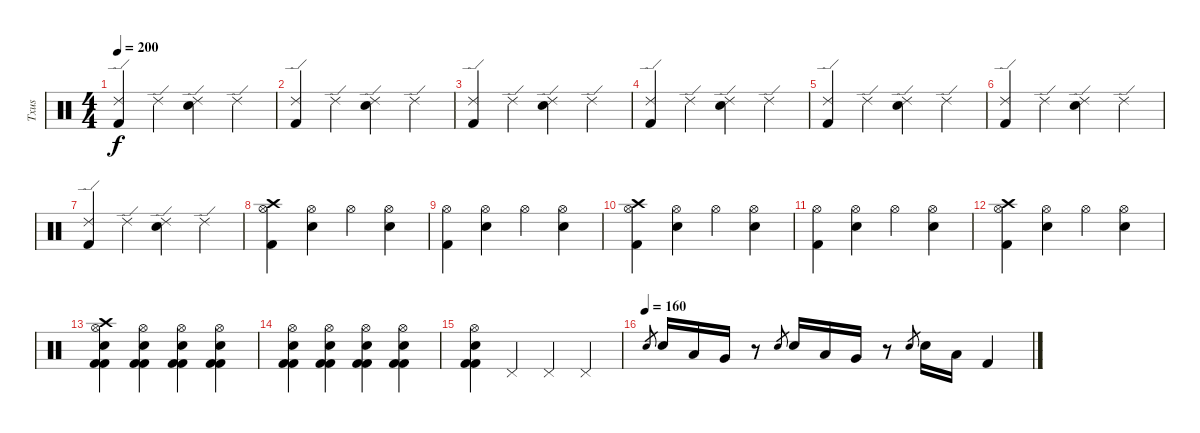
\track ("Txus" "Txus") {instrument percussion}
\staff
\articulation defaults
\ts (4 4)
\tempo 200
\clef neutral
\ks c
("Ride (edge) 2" "Kick (hit) 2").4{dy f} "Ride (edge) 2".4 ("Ride (edge) 2" "Electric Snare (hit)").4 "Ride (edge) 2".4 |
("Ride (edge) 2" "Kick (hit) 2").4 "Ride (edge) 2".4 ("Ride (edge) 2" "Electric Snare (hit)").4 "Ride (edge) 2".4 |
("Ride (edge) 2" "Kick (hit) 2").4 "Ride (edge) 2".4 ("Ride (edge) 2" "Electric Snare (hit)").4 "Ride (edge) 2".4 |
("Ride (edge) 2" "Kick (hit) 2").4 "Ride (edge) 2".4 ("Ride (edge) 2" "Electric Snare (hit)").4 "Ride (edge) 2".4 |
("Ride (edge) 2" "Kick (hit) 2").4 "Ride (edge) 2".4 ("Ride (edge) 2" "Electric Snare (hit)").4 "Ride (edge) 2".4 |
("Ride (edge) 2" "Kick (hit) 2").4 "Ride (edge) 2".4 ("Ride (edge) 2" "Electric Snare (hit)").4 "Ride (edge) 2".4 |
("Ride (edge) 2" "Kick (hit) 2").4 "Ride (edge) 2".4 ("Ride (edge) 2" "Electric Snare (hit)").4 "Ride (edge) 2".4 |
("Kick (hit) 2" "Crash high (hit)" "Hi-Hat (open)").4 ("Electric Snare (hit)" "Hi-Hat (open)").4 "Hi-Hat (open)".4 ("Electric Snare (hit)" "Hi-Hat (open)").4 |
("Kick (hit) 2" "Hi-Hat (open)").4 ("Electric Snare (hit)" "Hi-Hat (open)").4 "Hi-Hat (open)".4 ("Electric Snare (hit)" "Hi-Hat (open)").4 |
("Kick (hit) 2" "Crash high (hit)" "Hi-Hat (open)").4 ("Electric Snare (hit)" "Hi-Hat (open)").4 "Hi-Hat (open)".4 ("Electric Snare (hit)" "Hi-Hat (open)").4 |
("Kick (hit) 2" "Hi-Hat (open)").4 ("Electric Snare (hit)" "Hi-Hat (open)").4 "Hi-Hat (open)".4 ("Electric Snare (hit)" "Hi-Hat (open)").4 |
("Kick (hit) 2" "Crash high (hit)" "Hi-Hat (open)").4 ("Electric Snare (hit)" "Hi-Hat (open)").4 "Hi-Hat (open)".4 ("Electric Snare (hit)" "Hi-Hat (open)").4 |
("Electric Snare (hit)" "Kick (hit) 2" "Kick (hit) 2" "Hi-Hat (open)" "Crash high (hit)").4 ("Electric Snare (hit)" "Kick (hit) 2" "Kick (hit) 2" "Hi-Hat (open)").4 ("Electric Snare (hit)" "Kick (hit) 2" "Kick (hit) 2" "Hi-Hat (open)").4 ("Electric Snare (hit)" "Kick (hit) 2" "Kick (hit) 2" "Hi-Hat (open)").4 |
("Electric Snare (hit)" "Kick (hit) 2" "Kick (hit) 2" "Hi-Hat (open)").4 ("Electric Snare (hit)" "Kick (hit) 2" "Kick (hit) 2" "Hi-Hat (open)").4 ("Electric Snare (hit)" "Kick (hit) 2" "Kick (hit) 2" "Hi-Hat (open)").4 ("Electric Snare (hit)" "Kick (hit) 2" "Kick (hit) 2" "Hi-Hat (open)").4 |
("Electric Snare (hit)" "Kick (hit) 2" "Kick (hit) 2" "Hi-Hat (open)").4 "Pedal Hi-Hat (hit)".4 "Pedal Hi-Hat (hit)".4 "Pedal Hi-Hat (hit)".4 |
\tempo (160)
"Electric Snare (hit)".8{gr} "Electric Snare (hit)".16 "Low Tom (hit)".16 "Very Low Tom (hit)".16 r.8 "Electric Snare (hit)".8{gr} "Electric Snare (hit)".16 "Low Tom (hit)".16 "Very Low Tom (hit)".16 r.8 "Electric Snare (hit)".8{gr} "Electric Snare (hit)".16 "Low Tom (hit)".16 "Kick (hit) 2".4
